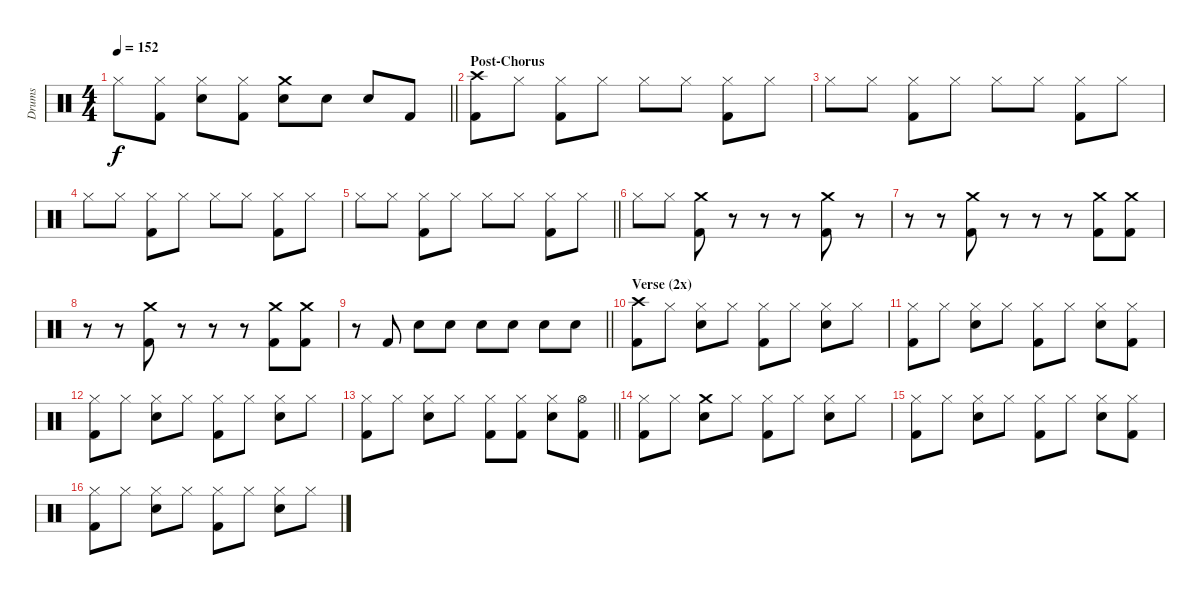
\track ("Drums" "Drums") {instrument percussion}
\staff
\articulation defaults
\ts (4 4)
\tempo 152
\clef neutral
\barLineRight lightlight
\ks c "Hi-Hat (closed)".8{dy f}
("Hi-Hat (closed)" "Kick (hit) 2").8 ("Hi-Hat (closed)" "Electric Snare (hit)").8 ("Hi-Hat (closed)" "Kick (hit) 2").8 ("Crash medium (hit)" "Electric Snare (hit)").8 "Electric Snare (hit)".8 "Electric Snare (hit)".8 "Kick (hit) 2".8 |
\section ("" "Post-Chorus")
("Crash high (hit)" "Kick (hit) 2").8 "Hi-Hat (closed)".8 ("Hi-Hat (closed)" "Kick (hit) 2").8 "Hi-Hat (closed)".8 "Hi-Hat (closed)".8 "Hi-Hat (closed)".8 ("Hi-Hat (closed)" "Kick (hit) 2").8 "Hi-Hat (closed)".8 |
"Hi-Hat (closed)".8 "Hi-Hat (closed)".8 ("Hi-Hat (closed)" "Kick (hit) 2").8 "Hi-Hat (closed)".8 "Hi-Hat (closed)".8 "Hi-Hat (closed)".8 ("Hi-Hat (closed)" "Kick (hit) 2").8 "Hi-Hat (closed)".8 |
"Hi-Hat (closed)".8 "Hi-Hat (closed)".8 ("Hi-Hat (closed)" "Kick (hit) 2").8 "Hi-Hat (closed)".8 "Hi-Hat (closed)".8 "Hi-Hat (closed)".8 ("Hi-Hat (closed)" "Kick (hit) 2").8 "Hi-Hat (closed)".8 |
\barLineRight lightlight "Hi-Hat (closed)".8 "Hi-Hat (closed)".8
("Hi-Hat (closed)" "Kick (hit) 2").8 "Hi-Hat (closed)".8 "Hi-Hat (closed)".8 "Hi-Hat (closed)".8 ("Hi-Hat (closed)" "Kick (hit) 2").8 "Hi-Hat (closed)".8 |
"Hi-Hat (closed)".8 "Hi-Hat (closed)".8 ("Crash medium (hit)" "Kick (hit) 2").8 r.8 r.8 r.8 ("Crash medium (hit)" "Kick (hit) 2").8 r.8 |
r.8 r.8 ("Crash medium (hit)" "Kick (hit) 2").8 r.8 r.8 r.8 ("Crash medium (hit)" "Kick (hit) 2").8 ("Crash medium (hit)" "Kick (hit) 2").8 |
r.8 r.8 ("Crash medium (hit)" "Kick (hit) 2").8 r.8 r.8 r.8 ("Crash medium (hit)" "Kick (hit) 2").8 ("Crash medium (hit)" "Kick (hit) 2").8 |
\barLineRight lightlight
r.8 "Kick (hit) 2".8 "Electric Snare (hit)".8 "Electric Snare (hit)".8 "Electric Snare (hit)".8 "Electric Snare (hit)".8 "Electric Snare (hit)".8 "Electric Snare (hit)".8 |
\section ("" "Verse (2x)")
("Crash high (hit)" "Kick (hit) 2").8 "Hi-Hat (closed)".8 ("Hi-Hat (closed)" "Electric Snare (hit)").8 "Hi-Hat (closed)".8 ("Hi-Hat (closed)" "Kick (hit) 2").8 "Hi-Hat (closed)".8 ("Hi-Hat (closed)" "Electric Snare (hit)").8 "Hi-Hat (closed)".8 |
("Hi-Hat (closed)" "Kick (hit) 2").8 "Hi-Hat (closed)".8 ("Hi-Hat (closed)" "Electric Snare (hit)").8 "Hi-Hat (closed)".8 ("Hi-Hat (closed)" "Kick (hit) 2").8 "Hi-Hat (closed)".8 ("Hi-Hat (closed)" "Electric Snare (hit)").8 ("Hi-Hat (closed)" "Kick (hit) 2").8 |
("Hi-Hat (closed)" "Kick (hit) 2").8 "Hi-Hat (closed)".8 ("Hi-Hat (closed)" "Electric Snare (hit)").8 "Hi-Hat (closed)".8 ("Hi-Hat (closed)" "Kick (hit) 2").8 "Hi-Hat (closed)".8 ("Hi-Hat (closed)" "Electric Snare (hit)").8 "Hi-Hat (closed)".8 |
\barLineRight lightlight
("Hi-Hat (closed)" "Kick (hit) 2").8 "Hi-Hat (closed)".8 ("Hi-Hat (closed)" "Electric Snare (hit)").8 "Hi-Hat (closed)".8 ("Hi-Hat (closed)" "Kick (hit) 2").8 ("Hi-Hat (closed)" "Kick (hit) 2").8 ("Hi-Hat (closed)" "Electric Snare (hit)").8 ("Hi-Hat (open)" "Kick (hit) 2").8 |
("Hi-Hat (closed)" "Kick (hit) 2").8 "Hi-Hat (closed)".8 ("Crash medium (hit)" "Electric Snare (hit)").8 "Hi-Hat (closed)".8 ("Hi-Hat (closed)" "Kick (hit) 2").8 "Hi-Hat (closed)".8 ("Hi-Hat (closed)" "Electric Snare (hit)").8 "Hi-Hat (closed)".8 |
("Hi-Hat (closed)" "Kick (hit) 2").8 "Hi-Hat (closed)".8 ("Hi-Hat (closed)" "Electric Snare (hit)").8 "Hi-Hat (closed)".8 ("Hi-Hat (closed)" "Kick (hit) 2").8 "Hi-Hat (closed)".8 ("Hi-Hat (closed)" "Electric Snare (hit)").8 ("Hi-Hat (closed)" "Kick (hit) 2").8 |
("Hi-Hat (closed)" "Kick (hit) 2").8 "Hi-Hat (closed)".8 ("Hi-Hat (closed)" "Electric Snare (hit)").8 "Hi-Hat (closed)".8 ("Hi-Hat (closed)" "Kick (hit) 2").8 "Hi-Hat (closed)".8 ("Hi-Hat (closed)" "Electric Snare (hit)").8 "Hi-Hat (closed)".8
